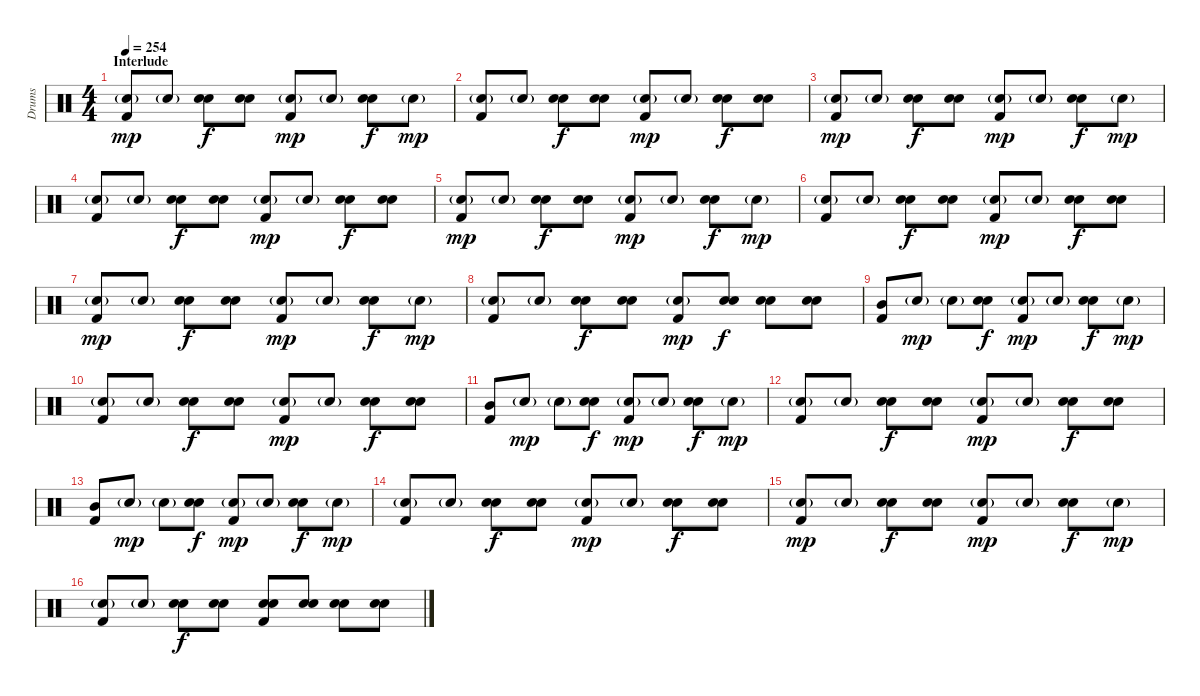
\track ("Drums" "Drums") {instrument percussion}
\staff {score}
\articulation defaults
\ts (4 4)
\section ("" "Interlude")
\tempo 254
\clef neutral
\ks c
("Electric Snare (hit)"{g} "Kick (hit) 2").8{dy mp} "Electric Snare (hit)"{g}.8 ("Electric Snare (hit)" "Electric Snare (hit)").8{dy f} ("Electric Snare (hit)" "Electric Snare (hit)").8 ("Electric Snare (hit)"{g} "Kick (hit) 2").8{dy mp} "Electric Snare (hit)"{g}.8 ("Electric Snare (hit)" "Electric Snare (hit)").8{dy f} "Electric Snare (hit)"{g}.8{dy mp} |
("Electric Snare (hit)"{g} "Kick (hit) 2").8 "Electric Snare (hit)"{g}.8 ("Electric Snare (hit)" "Electric Snare (hit)").8{dy f} ("Electric Snare (hit)" "Electric Snare (hit)").8 ("Electric Snare (hit)"{g} "Kick (hit) 2").8{dy mp} "Electric Snare (hit)"{g}.8 ("Electric Snare (hit)" "Electric Snare (hit)").8{dy f} ("Electric Snare (hit)" "Electric Snare (hit)").8 |
("Electric Snare (hit)"{g} "Kick (hit) 2").8{dy mp} "Electric Snare (hit)"{g}.8 ("Electric Snare (hit)" "Electric Snare (hit)").8{dy f} ("Electric Snare (hit)" "Electric Snare (hit)").8 ("Electric Snare (hit)"{g} "Kick (hit) 2").8{dy mp} "Electric Snare (hit)"{g}.8 ("Electric Snare (hit)" "Electric Snare (hit)").8{dy f} "Electric Snare (hit)"{g}.8{dy mp} |
("Electric Snare (hit)"{g} "Kick (hit) 2").8 "Electric Snare (hit)"{g}.8 ("Electric Snare (hit)" "Electric Snare (hit)").8{dy f} ("Electric Snare (hit)" "Electric Snare (hit)").8 ("Electric Snare (hit)"{g} "Kick (hit) 2").8{dy mp} "Electric Snare (hit)"{g}.8 ("Electric Snare (hit)" "Electric Snare (hit)").8{dy f} ("Electric Snare (hit)" "Electric Snare (hit)").8 |
("Electric Snare (hit)"{g} "Kick (hit) 2").8{dy mp} "Electric Snare (hit)"{g}.8 ("Electric Snare (hit)" "Electric Snare (hit)").8{dy f} ("Electric Snare (hit)" "Electric Snare (hit)").8 ("Electric Snare (hit)"{g} "Kick (hit) 2").8{dy mp} "Electric Snare (hit)"{g}.8 ("Electric Snare (hit)" "Electric Snare (hit)").8{dy f} "Electric Snare (hit)"{g}.8{dy mp} |
("Electric Snare (hit)"{g} "Kick (hit) 2").8 "Electric Snare (hit)"{g}.8 ("Electric Snare (hit)" "Electric Snare (hit)").8{dy f} ("Electric Snare (hit)" "Electric Snare (hit)").8 ("Electric Snare (hit)"{g} "Kick (hit) 2").8{dy mp} "Electric Snare (hit)"{g}.8 ("Electric Snare (hit)" "Electric Snare (hit)").8{dy f} ("Electric Snare (hit)" "Electric Snare (hit)").8 |
("Electric Snare (hit)"{g} "Kick (hit) 2").8{dy mp} "Electric Snare (hit)"{g}.8 ("Electric Snare (hit)" "Electric Snare (hit)").8{dy f} ("Electric Snare (hit)" "Electric Snare (hit)").8 ("Electric Snare (hit)"{g} "Kick (hit) 2").8{dy mp} "Electric Snare (hit)"{g}.8 ("Electric Snare (hit)" "Electric Snare (hit)").8{dy f} "Electric Snare (hit)"{g}.8{dy mp} |
("Electric Snare (hit)"{g} "Kick (hit) 2").8 "Electric Snare (hit)"{g}.8 ("Electric Snare (hit)" "Electric Snare (hit)").8{dy f} ("Electric Snare (hit)" "Electric Snare (hit)").8 ("Electric Snare (hit)"{g} "Kick (hit) 2").8{dy mp} ("Electric Snare (hit)" "Electric Snare (hit)").8{dy f} ("Electric Snare (hit)" "Electric Snare (hit)").8 ("Electric Snare (hit)" "Electric Snare (hit)").8 |
("Mid Tom (hit)" "Kick (hit) 2").8 "Electric Snare (hit)"{g}.8{dy mp} "Electric Snare (hit)"{g}.8 ("Electric Snare (hit)" "Electric Snare (hit)").8{dy f} ("Electric Snare (hit)"{g} "Kick (hit) 2").8{dy mp} "Electric Snare (hit)"{g}.8 ("Electric Snare (hit)" "Electric Snare (hit)").8{dy f} "Electric Snare (hit)"{g}.8{dy mp} |
("Electric Snare (hit)"{g} "Kick (hit) 2").8 "Electric Snare (hit)"{g}.8 ("Electric Snare (hit)" "Electric Snare (hit)").8{dy f} ("Electric Snare (hit)" "Electric Snare (hit)").8 ("Electric Snare (hit)"{g} "Kick (hit) 2").8{dy mp} "Electric Snare (hit)"{g}.8 ("Electric Snare (hit)" "Electric Snare (hit)").8{dy f} ("Electric Snare (hit)" "Electric Snare (hit)").8 |
("Mid Tom (hit)" "Kick (hit) 2").8 "Electric Snare (hit)"{g}.8{dy mp} "Electric Snare (hit)"{g}.8 ("Electric Snare (hit)" "Electric Snare (hit)").8{dy f} ("Electric Snare (hit)"{g} "Kick (hit) 2").8{dy mp} "Electric Snare (hit)"{g}.8 ("Electric Snare (hit)" "Electric Snare (hit)").8{dy f} "Electric Snare (hit)"{g}.8{dy mp} |
("Electric Snare (hit)"{g} "Kick (hit) 2").8 "Electric Snare (hit)"{g}.8 ("Electric Snare (hit)" "Electric Snare (hit)").8{dy f} ("Electric Snare (hit)" "Electric Snare (hit)").8 ("Electric Snare (hit)"{g} "Kick (hit) 2").8{dy mp} "Electric Snare (hit)"{g}.8 ("Electric Snare (hit)" "Electric Snare (hit)").8{dy f} ("Electric Snare (hit)" "Electric Snare (hit)").8 |
("Mid Tom (hit)" "Kick (hit) 2").8 "Electric Snare (hit)"{g}.8{dy mp} "Electric Snare (hit)"{g}.8 ("Electric Snare (hit)" "Electric Snare (hit)").8{dy f} ("Electric Snare (hit)"{g} "Kick (hit) 2").8{dy mp} "Electric Snare (hit)"{g}.8 ("Electric Snare (hit)" "Electric Snare (hit)").8{dy f} "Electric Snare (hit)"{g}.8{dy mp} |
("Electric Snare (hit)"{g} "Kick (hit) 2").8 "Electric Snare (hit)"{g}.8 ("Electric Snare (hit)" "Electric Snare (hit)").8{dy f} ("Electric Snare (hit)" "Electric Snare (hit)").8 ("Electric Snare (hit)"{g} "Kick (hit) 2").8{dy mp} "Electric Snare (hit)"{g}.8 ("Electric Snare (hit)" "Electric Snare (hit)").8{dy f} ("Electric Snare (hit)" "Electric Snare (hit)").8 |
("Electric Snare (hit)"{g} "Kick (hit) 2").8{dy mp} "Electric Snare (hit)"{g}.8 ("Electric Snare (hit)" "Electric Snare (hit)").8{dy f} ("Electric Snare (hit)" "Electric Snare (hit)").8 ("Electric Snare (hit)"{g} "Kick (hit) 2").8{dy mp} "Electric Snare (hit)"{g}.8 ("Electric Snare (hit)" "Electric Snare (hit)").8{dy f} "Electric Snare (hit)"{g}.8{dy mp} |
("Electric Snare (hit)"{g} "Kick (hit) 2").8 "Electric Snare (hit)"{g}.8 ("Electric Snare (hit)" "Electric Snare (hit)").8{dy f} ("Electric Snare (hit)" "Electric Snare (hit)").8 ("Electric Snare (hit)" "Electric Snare (hit)" "Kick (hit) 2").8 ("Electric Snare (hit)" "Electric Snare (hit)").8 ("Electric Snare (hit)" "Electric Snare (hit)").8 ("Electric Snare (hit)" "Electric Snare (hit)").8
